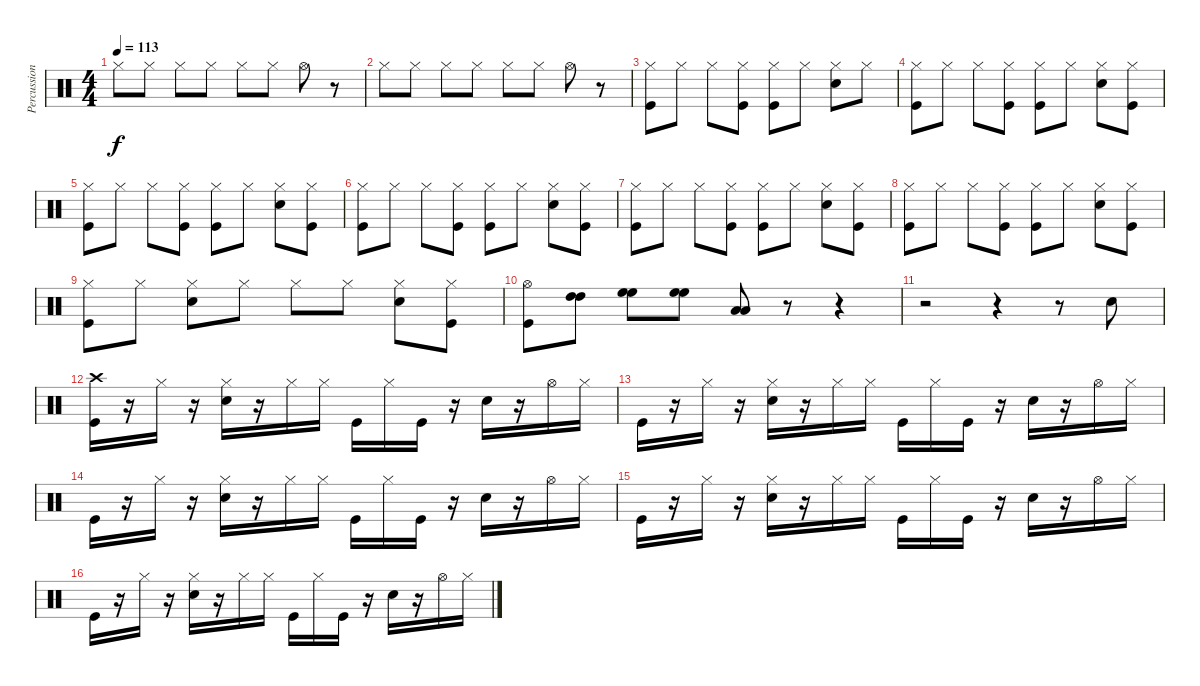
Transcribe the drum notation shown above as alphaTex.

\track ("Percussioni" "Percussion") {instrument percussion}
\staff {score}
\articulation defaults
\ts (4 4)
\tempo 113
\clef neutral
\ks c "Hi-Hat (closed)".8{dy f} "Hi-Hat (closed)".8 "Hi-Hat (closed)".8 "Hi-Hat (closed)".8 "Hi-Hat (closed)".8 "Hi-Hat (closed)".8 "Hi-Hat (open)".8
r.8 |
"Hi-Hat (closed)".8 "Hi-Hat (closed)".8 "Hi-Hat (closed)".8 "Hi-Hat (closed)".8 "Hi-Hat (closed)".8 "Hi-Hat (closed)".8 "Hi-Hat (open)".8 r.8 |
("Hi-Hat (closed)" "Kick (hit)").8 "Hi-Hat (closed)".8 "Hi-Hat (closed)".8 ("Hi-Hat (closed)" "Kick (hit)").8 ("Hi-Hat (closed)" "Kick (hit)").8 "Hi-Hat (closed)".8 ("Hi-Hat (closed)" "Electric Snare (hit)").8 "Hi-Hat (closed)".8 |
("Hi-Hat (closed)" "Kick (hit)").8 "Hi-Hat (closed)".8 "Hi-Hat (closed)".8 ("Hi-Hat (closed)" "Kick (hit)").8 ("Hi-Hat (closed)" "Kick (hit)").8 "Hi-Hat (closed)".8 ("Hi-Hat (closed)" "Electric Snare (hit)").8 ("Hi-Hat (closed)" "Kick (hit)").8 |
("Hi-Hat (closed)" "Kick (hit)").8 "Hi-Hat (closed)".8 "Hi-Hat (closed)".8 ("Hi-Hat (closed)" "Kick (hit)").8 ("Hi-Hat (closed)" "Kick (hit)").8 "Hi-Hat (closed)".8 ("Hi-Hat (closed)" "Electric Snare (hit)").8 ("Hi-Hat (closed)" "Kick (hit)").8 |
("Hi-Hat (closed)" "Kick (hit)").8 "Hi-Hat (closed)".8 "Hi-Hat (closed)".8 ("Hi-Hat (closed)" "Kick (hit)").8 ("Hi-Hat (closed)" "Kick (hit)").8 "Hi-Hat (closed)".8 ("Hi-Hat (closed)" "Electric Snare (hit)").8 ("Hi-Hat (closed)" "Kick (hit)").8 |
("Hi-Hat (closed)" "Kick (hit)").8 "Hi-Hat (closed)".8 "Hi-Hat (closed)".8 ("Hi-Hat (closed)" "Kick (hit)").8 ("Hi-Hat (closed)" "Kick (hit)").8 "Hi-Hat (closed)".8 ("Hi-Hat (closed)" "Electric Snare (hit)").8 ("Hi-Hat (closed)" "Kick (hit)").8 |
("Hi-Hat (closed)" "Kick (hit)").8 "Hi-Hat (closed)".8 "Hi-Hat (closed)".8 ("Hi-Hat (closed)" "Kick (hit)").8 ("Hi-Hat (closed)" "Kick (hit)").8 "Hi-Hat (closed)".8 ("Hi-Hat (closed)" "Electric Snare (hit)").8 ("Hi-Hat (closed)" "Kick (hit)").8 |
("Hi-Hat (closed)" "Kick (hit)").8 "Hi-Hat (closed)".8 ("Hi-Hat (closed)" "Electric Snare (hit)").8 "Hi-Hat (closed)".8 "Hi-Hat (closed)".8 "Hi-Hat (closed)".8 ("Hi-Hat (closed)" "Electric Snare (hit)").8 ("Hi-Hat (closed)" "Kick (hit)").8 |
("Hi-Hat (open)" "Kick (hit)").8 ("High Tom (hit)" "High Tom (hit)").8 ("High Floor Tom (hit)" "High Floor Tom (hit)").8 ("High Floor Tom (hit)" "High Floor Tom (hit)").8 ("Low Tom (hit)" "Low Tom (hit)").8 r.8 r.4 |
r.2 r.4 r.8 "Electric Snare (hit)".8 |
("Crash high (hit)" "Kick (hit)").16 r.16 "Hi-Hat (closed)".16 r.16 ("Hi-Hat (closed)" "Electric Snare (hit)").16 r.16 "Hi-Hat (closed)".16 "Hi-Hat (closed)".16 "Kick (hit)".16 "Hi-Hat (closed)".16 "Kick (hit)".16 r.16 "Electric Snare (hit)".16 r.16 "Hi-Hat (open)".16 "Hi-Hat (closed)".16 |
"Kick (hit)".16 r.16 "Hi-Hat (closed)".16 r.16 ("Hi-Hat (closed)" "Electric Snare (hit)").16 r.16 "Hi-Hat (closed)".16 "Hi-Hat (closed)".16 "Kick (hit)".16 "Hi-Hat (closed)".16 "Kick (hit)".16 r.16 "Electric Snare (hit)".16 r.16 "Hi-Hat (open)".16 "Hi-Hat (closed)".16 |
"Kick (hit)".16 r.16 "Hi-Hat (closed)".16 r.16 ("Hi-Hat (closed)" "Electric Snare (hit)").16 r.16 "Hi-Hat (closed)".16 "Hi-Hat (closed)".16 "Kick (hit)".16 "Hi-Hat (closed)".16 "Kick (hit)".16 r.16 "Electric Snare (hit)".16 r.16 "Hi-Hat (open)".16 "Hi-Hat (closed)".16 |
"Kick (hit)".16 r.16 "Hi-Hat (closed)".16 r.16 ("Hi-Hat (closed)" "Electric Snare (hit)").16 r.16 "Hi-Hat (closed)".16 "Hi-Hat (closed)".16 "Kick (hit)".16 "Hi-Hat (closed)".16 "Kick (hit)".16 r.16 "Electric Snare (hit)".16 r.16 "Hi-Hat (open)".16 "Hi-Hat (closed)".16 |
"Kick (hit)".16 r.16 "Hi-Hat (closed)".16 r.16 ("Hi-Hat (closed)" "Electric Snare (hit)").16 r.16 "Hi-Hat (closed)".16 "Hi-Hat (closed)".16 "Kick (hit)".16 "Hi-Hat (closed)".16 "Kick (hit)".16 r.16 "Electric Snare (hit)".16 r.16 "Hi-Hat (open)".16 "Hi-Hat (closed)".16
